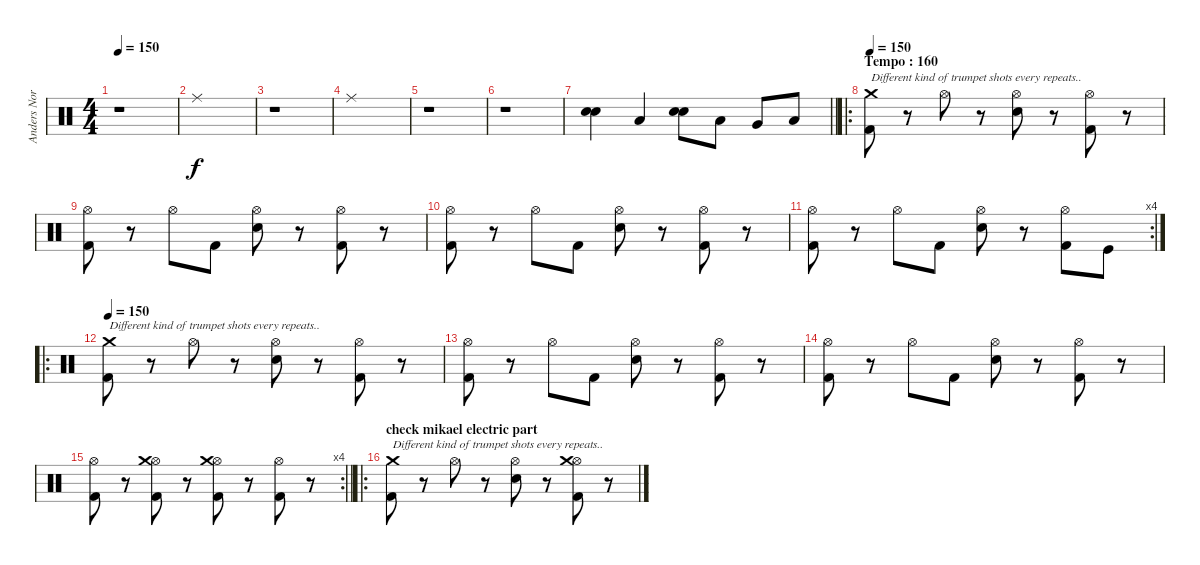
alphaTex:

\track ("Anders Nordin" "Anders Nor") {instrument percussion}
\staff {score}
\articulation defaults
\ts (4 4)
\tempo 150
\clef neutral
\ks c
r.1{dy f} |
"Ride (middle)".1 |
r.1 |
"Ride (middle)".1 |
r.1 |
r.1 |
\barLineRight lightlight
("Snare (hit) 2" "Electric Snare (hit)").4{bd 240} "Low Floor Tom (hit)".4 ("Snare (hit) 2" "Electric Snare (hit)").8{bd 480} "Low Tom (hit)".8 "Very Low Tom (hit)".8 "Low Floor Tom (hit)".8 |
\ro
\section ("" "Tempo : 160")
\tempo 150
("Crash medium (hit)" "Kick (hit) 2").8{txt "Different kind of trumpet shots every repeats.."} r.8 "Hi-Hat (open)".8 r.8 ("Hi-Hat (open)" "Snare (hit) 2").8 r.8 ("Hi-Hat (open)" "Kick (hit) 2").8 r.8 |
("Hi-Hat (open)" "Kick (hit) 2").8 r.8 "Hi-Hat (open)".8 "Kick (hit) 2".8 ("Hi-Hat (open)" "Snare (hit) 2").8 r.8 ("Hi-Hat (open)" "Kick (hit) 2").8 r.8 |
("Hi-Hat (open)" "Kick (hit) 2").8 r.8 "Hi-Hat (open)".8 "Kick (hit) 2".8 ("Hi-Hat (open)" "Snare (hit) 2").8 r.8 ("Hi-Hat (open)" "Kick (hit) 2").8 r.8 |
\rc 4
("Hi-Hat (open)" "Kick (hit) 2").8 r.8 "Hi-Hat (open)".8 "Kick (hit) 2".8 ("Hi-Hat (open)" "Snare (hit) 2").8 r.8 ("Hi-Hat (open)" "Kick (hit) 2").8 "Kick (hit)".8 |
\ro
\tempo 150
("Crash medium (hit)" "Kick (hit) 2").8{txt "Different kind of trumpet shots every repeats.."} r.8 "Hi-Hat (open)".8 r.8 ("Hi-Hat (open)" "Snare (hit) 2").8 r.8 ("Hi-Hat (open)" "Kick (hit) 2").8 r.8 |
("Hi-Hat (open)" "Kick (hit) 2").8 r.8 "Hi-Hat (open)".8 "Kick (hit) 2".8 ("Hi-Hat (open)" "Snare (hit) 2").8 r.8 ("Hi-Hat (open)" "Kick (hit) 2").8 r.8 |
("Hi-Hat (open)" "Kick (hit) 2").8 r.8 "Hi-Hat (open)".8 "Kick (hit) 2".8 ("Hi-Hat (open)" "Snare (hit) 2").8 r.8 ("Hi-Hat (open)" "Kick (hit) 2").8 r.8 |
\rc 4
\barLineRight lightlight
("Hi-Hat (open)" "Kick (hit) 2").8 r.8 ("Hi-Hat (open)" "Crash medium (hit)" "Kick (hit) 2").8 r.8 ("Hi-Hat (open)" "Crash medium (hit)" "Kick (hit) 2").8 r.8 ("Hi-Hat (open)" "Kick (hit) 2").8 r.8 |
\ro
\section ("" "check mikael electric part")
("Crash medium (hit)" "Kick (hit) 2").8{txt "Different kind of trumpet shots every repeats.."} r.8 "Hi-Hat (open)".8 r.8 ("Hi-Hat (open)" "Snare (hit) 2").8 r.8 ("Hi-Hat (open)" "Crash medium (hit)" "Kick (hit) 2").8 r.8
